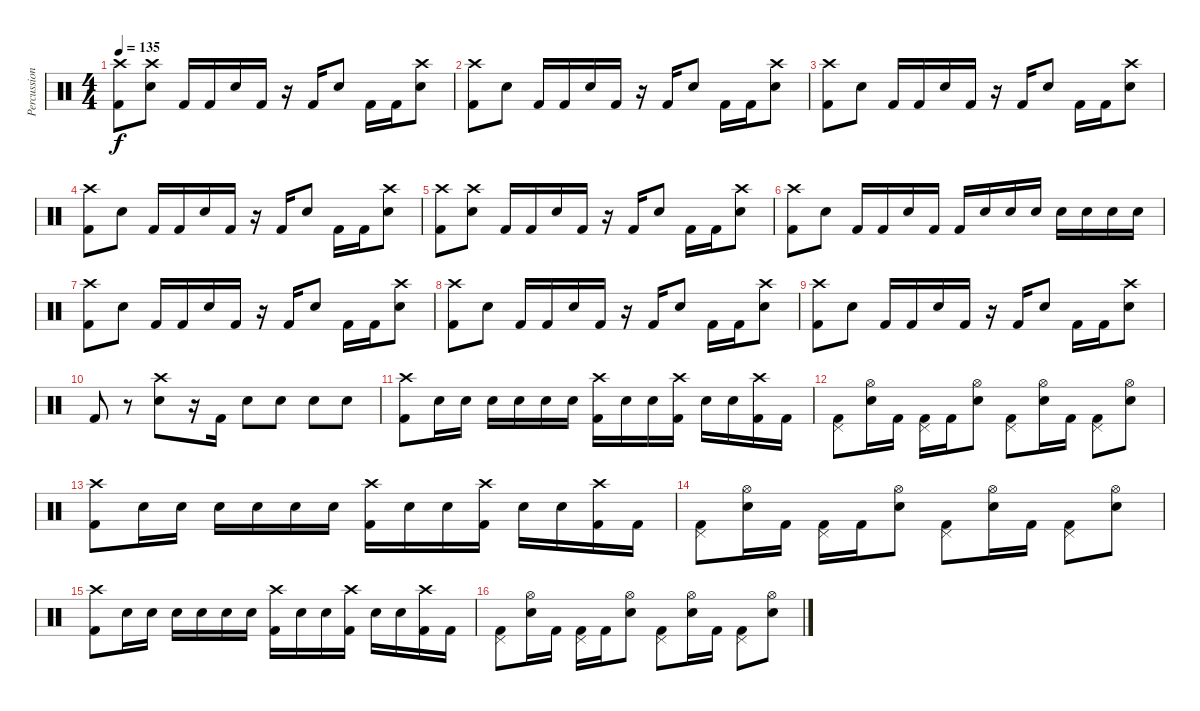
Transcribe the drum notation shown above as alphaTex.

\track ("Percussion" "Percussion") {instrument percussion}
\staff {score}
\articulation defaults
\ts (4 4)
\tempo 135
\clef neutral
\ks c
("Kick (hit) 2" "Crash high (hit)").8{dy f} ("Electric Snare (hit)" "Crash high (hit)").8 "Kick (hit) 2".16 "Kick (hit) 2".16 "Electric Snare (hit)".16 "Kick (hit) 2".16 r.16 "Kick (hit) 2".16 "Electric Snare (hit)".8 "Kick (hit) 2".16 "Kick (hit) 2".16 ("Electric Snare (hit)" "Crash high (hit)").8 |
("Kick (hit) 2" "Crash high (hit)").8 "Electric Snare (hit)".8 "Kick (hit) 2".16 "Kick (hit) 2".16 "Electric Snare (hit)".16 "Kick (hit) 2".16 r.16 "Kick (hit) 2".16 "Electric Snare (hit)".8 "Kick (hit) 2".16 "Kick (hit) 2".16 ("Electric Snare (hit)" "Crash high (hit)").8 |
("Kick (hit) 2" "Crash high (hit)").8 "Electric Snare (hit)".8 "Kick (hit) 2".16 "Kick (hit) 2".16 "Electric Snare (hit)".16 "Kick (hit) 2".16 r.16 "Kick (hit) 2".16 "Electric Snare (hit)".8 "Kick (hit) 2".16 "Kick (hit) 2".16 ("Electric Snare (hit)" "Crash high (hit)").8 |
("Kick (hit) 2" "Crash high (hit)").8 "Electric Snare (hit)".8 "Kick (hit) 2".16 "Kick (hit) 2".16 "Electric Snare (hit)".16 "Kick (hit) 2".16 r.16 "Kick (hit) 2".16 "Electric Snare (hit)".8 "Kick (hit) 2".16 "Kick (hit) 2".16 ("Electric Snare (hit)" "Crash high (hit)").8 |
("Kick (hit) 2" "Crash high (hit)").8 ("Electric Snare (hit)" "Crash high (hit)").8 "Kick (hit) 2".16 "Kick (hit) 2".16 "Electric Snare (hit)".16 "Kick (hit) 2".16 r.16 "Kick (hit) 2".16 "Electric Snare (hit)".8 "Kick (hit) 2".16 "Kick (hit) 2".16 ("Electric Snare (hit)" "Crash high (hit)").8 |
("Kick (hit) 2" "Crash high (hit)").8 "Electric Snare (hit)".8 "Kick (hit) 2".16 "Kick (hit) 2".16 "Electric Snare (hit)".16 "Kick (hit) 2".16 "Kick (hit) 2".16 "Electric Snare (hit)".16 "Electric Snare (hit)".16 "Electric Snare (hit)".16 "Electric Snare (hit)".16 "Electric Snare (hit)".16 "Electric Snare (hit)".16 "Electric Snare (hit)".16 |
("Kick (hit) 2" "Crash high (hit)").8 "Electric Snare (hit)".8 "Kick (hit) 2".16 "Kick (hit) 2".16 "Electric Snare (hit)".16 "Kick (hit) 2".16 r.16 "Kick (hit) 2".16 "Electric Snare (hit)".8 "Kick (hit) 2".16 "Kick (hit) 2".16 ("Electric Snare (hit)" "Crash high (hit)").8 |
("Kick (hit) 2" "Crash high (hit)").8 "Electric Snare (hit)".8 "Kick (hit) 2".16 "Kick (hit) 2".16 "Electric Snare (hit)".16 "Kick (hit) 2".16 r.16 "Kick (hit) 2".16 "Electric Snare (hit)".8 "Kick (hit) 2".16 "Kick (hit) 2".16 ("Electric Snare (hit)" "Crash high (hit)").8 |
("Kick (hit) 2" "Crash high (hit)").8 "Electric Snare (hit)".8 "Kick (hit) 2".16 "Kick (hit) 2".16 "Electric Snare (hit)".16 "Kick (hit) 2".16 r.16 "Kick (hit) 2".16 "Electric Snare (hit)".8 "Kick (hit) 2".16 "Kick (hit) 2".16 ("Electric Snare (hit)" "Crash high (hit)").8 |
"Kick (hit) 2".8 r.8 ("Electric Snare (hit)" "Crash high (hit)").8 r.16 "Kick (hit) 2".16 "Electric Snare (hit)".8 "Electric Snare (hit)".8 "Electric Snare (hit)".8 "Electric Snare (hit)".8 |
("Kick (hit) 2" "Crash high (hit)").8 "Electric Snare (hit)".16 "Electric Snare (hit)".16 "Electric Snare (hit)".16 "Electric Snare (hit)".16 "Electric Snare (hit)".16 "Electric Snare (hit)".16 ("Kick (hit) 2" "Crash high (hit)").16 "Electric Snare (hit)".16 "Electric Snare (hit)".16 ("Kick (hit) 2" "Crash high (hit)").16 "Electric Snare (hit)".16 "Electric Snare (hit)".16 ("Kick (hit) 2" "Crash high (hit)").16 "Kick (hit) 2".16 |
("Pedal Hi-Hat (hit)" "Kick (hit) 2").8 ("Hi-Hat (open)" "Electric Snare (hit)").16 "Kick (hit) 2".16 ("Pedal Hi-Hat (hit)" "Kick (hit) 2").16 "Kick (hit) 2".16 ("Hi-Hat (open)" "Electric Snare (hit)").8 ("Pedal Hi-Hat (hit)" "Kick (hit) 2").8 ("Hi-Hat (open)" "Electric Snare (hit)").16 "Kick (hit) 2".16 ("Pedal Hi-Hat (hit)" "Kick (hit) 2").8 ("Hi-Hat (open)" "Electric Snare (hit)").8 |
("Kick (hit) 2" "Crash high (hit)").8 "Electric Snare (hit)".16 "Electric Snare (hit)".16 "Electric Snare (hit)".16 "Electric Snare (hit)".16 "Electric Snare (hit)".16 "Electric Snare (hit)".16 ("Kick (hit) 2" "Crash high (hit)").16 "Electric Snare (hit)".16 "Electric Snare (hit)".16 ("Kick (hit) 2" "Crash high (hit)").16 "Electric Snare (hit)".16 "Electric Snare (hit)".16 ("Kick (hit) 2" "Crash high (hit)").16 "Kick (hit) 2".16 |
("Pedal Hi-Hat (hit)" "Kick (hit) 2").8 ("Hi-Hat (open)" "Electric Snare (hit)").16 "Kick (hit) 2".16 ("Pedal Hi-Hat (hit)" "Kick (hit) 2").16 "Kick (hit) 2".16 ("Hi-Hat (open)" "Electric Snare (hit)").8 ("Pedal Hi-Hat (hit)" "Kick (hit) 2").8 ("Hi-Hat (open)" "Electric Snare (hit)").16 "Kick (hit) 2".16 ("Pedal Hi-Hat (hit)" "Kick (hit) 2").8 ("Hi-Hat (open)" "Electric Snare (hit)").8 |
("Kick (hit) 2" "Crash high (hit)").8 "Electric Snare (hit)".16 "Electric Snare (hit)".16 "Electric Snare (hit)".16 "Electric Snare (hit)".16 "Electric Snare (hit)".16 "Electric Snare (hit)".16 ("Kick (hit) 2" "Crash high (hit)").16 "Electric Snare (hit)".16 "Electric Snare (hit)".16 ("Kick (hit) 2" "Crash high (hit)").16 "Electric Snare (hit)".16 "Electric Snare (hit)".16 ("Kick (hit) 2" "Crash high (hit)").16 "Kick (hit) 2".16 |
("Pedal Hi-Hat (hit)" "Kick (hit) 2").8 ("Hi-Hat (open)" "Electric Snare (hit)").16 "Kick (hit) 2".16 ("Pedal Hi-Hat (hit)" "Kick (hit) 2").16 "Kick (hit) 2".16 ("Hi-Hat (open)" "Electric Snare (hit)").8 ("Pedal Hi-Hat (hit)" "Kick (hit) 2").8 ("Hi-Hat (open)" "Electric Snare (hit)").16 "Kick (hit) 2".16 ("Pedal Hi-Hat (hit)" "Kick (hit) 2").8 ("Hi-Hat (open)" "Electric Snare (hit)").8
